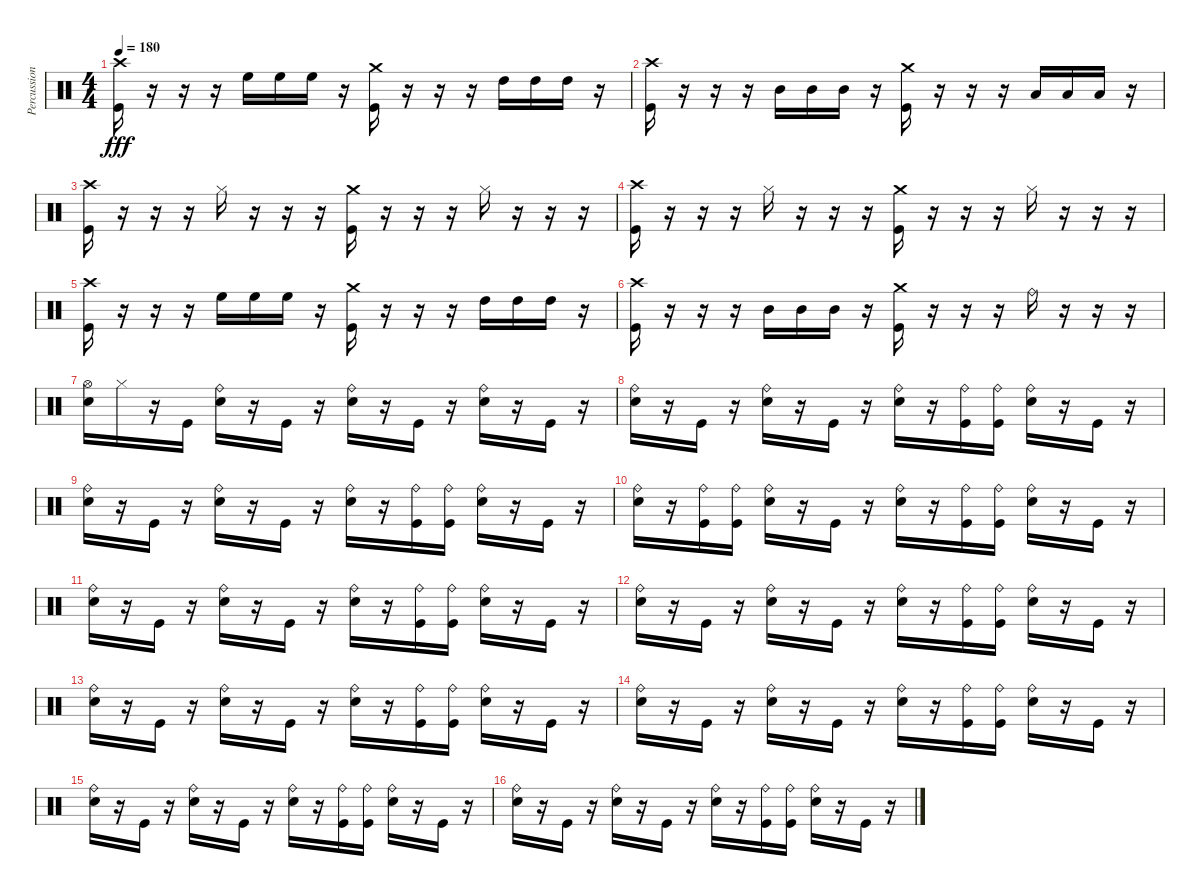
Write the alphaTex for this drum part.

\track ("Percussion" "Percussion") {instrument percussion}
\staff {score}
\articulation defaults
\ts (4 4)
\tempo 180
\clef neutral
\ks c
("Crash high (hit)" "Kick (hit)").16{dy fff} r.16 r.16 r.16 "High Floor Tom (hit)".16 "High Floor Tom (hit)".16 "High Floor Tom (hit)".16 r.16 ("Crash medium (hit)" "Kick (hit)").16 r.16 r.16 r.16 "High Tom (hit)".16 "High Tom (hit)".16 "High Tom (hit)".16 r.16 |
("Crash high (hit)" "Kick (hit)").16 r.16 r.16 r.16 "Mid Tom (hit)".16 "Mid Tom (hit)".16 "Mid Tom (hit)".16 r.16 ("Crash medium (hit)" "Kick (hit)").16 r.16 r.16 r.16 "Low Tom (hit)".16 "Low Tom (hit)".16 "Low Tom (hit)".16 r.16 |
("Crash high (hit)" "Kick (hit)").16 r.16 r.16 r.16 "Hi-Hat (closed)".16 r.16 r.16 r.16 ("Crash medium (hit)" "Kick (hit)").16 r.16 r.16 r.16 "Hi-Hat (closed)".16 r.16 r.16 r.16 |
("Crash high (hit)" "Kick (hit)").16 r.16 r.16 r.16 "Hi-Hat (closed)".16 r.16 r.16 r.16 ("Crash medium (hit)" "Kick (hit)").16 r.16 r.16 r.16 "Hi-Hat (closed)".16 r.16 r.16 r.16 |
("Crash high (hit)" "Kick (hit)").16 r.16 r.16 r.16 "High Floor Tom (hit)".16 "High Floor Tom (hit)".16 "High Floor Tom (hit)".16 r.16 ("Crash medium (hit)" "Kick (hit)").16 r.16 r.16 r.16 "High Tom (hit)".16 "High Tom (hit)".16 "High Tom (hit)".16 r.16 |
("Crash high (hit)" "Kick (hit)").16 r.16 r.16 r.16 "Mid Tom (hit)".16 "Mid Tom (hit)".16 "Mid Tom (hit)".16 r.16 ("Crash medium (hit)" "Kick (hit)").16 r.16 r.16 r.16 "Ride (bell)".16 r.16 r.16 r.16 |
("Hi-Hat (open)" "Electric Snare (hit)").16 "Hi-Hat (closed)".16 r.16 "Kick (hit)".16 ("Ride (bell)" "Electric Snare (hit)").16 r.16 "Kick (hit)".16 r.16 ("Ride (bell)" "Electric Snare (hit)").16 r.16 "Kick (hit)".16 r.16 ("Ride (bell)" "Electric Snare (hit)").16 r.16 "Kick (hit)".16 r.16 |
("Ride (bell)" "Electric Snare (hit)").16 r.16 "Kick (hit)".16 r.16 ("Ride (bell)" "Electric Snare (hit)").16 r.16 "Kick (hit)".16 r.16 ("Ride (bell)" "Electric Snare (hit)").16 r.16 ("Ride (bell)" "Kick (hit)").16 ("Ride (bell)" "Kick (hit)").16 ("Ride (bell)" "Electric Snare (hit)").16 r.16 "Kick (hit)".16 r.16 |
("Ride (bell)" "Electric Snare (hit)").16 r.16 "Kick (hit)".16 r.16 ("Ride (bell)" "Electric Snare (hit)").16 r.16 "Kick (hit)".16 r.16 ("Ride (bell)" "Electric Snare (hit)").16 r.16 ("Ride (bell)" "Kick (hit)").16 ("Ride (bell)" "Kick (hit)").16 ("Ride (bell)" "Electric Snare (hit)").16 r.16 "Kick (hit)".16 r.16 |
("Ride (bell)" "Electric Snare (hit)").16 r.16 ("Ride (bell)" "Kick (hit)").16 ("Ride (bell)" "Kick (hit)").16 ("Ride (bell)" "Electric Snare (hit)").16 r.16 "Kick (hit)".16 r.16 ("Ride (bell)" "Electric Snare (hit)").16 r.16 ("Ride (bell)" "Kick (hit)").16 ("Ride (bell)" "Kick (hit)").16 ("Ride (bell)" "Electric Snare (hit)").16 r.16 "Kick (hit)".16 r.16 |
("Ride (bell)" "Electric Snare (hit)").16 r.16 "Kick (hit)".16 r.16 ("Ride (bell)" "Electric Snare (hit)").16 r.16 "Kick (hit)".16 r.16 ("Ride (bell)" "Electric Snare (hit)").16 r.16 ("Ride (bell)" "Kick (hit)").16 ("Ride (bell)" "Kick (hit)").16 ("Ride (bell)" "Electric Snare (hit)").16 r.16 "Kick (hit)".16 r.16 |
("Ride (bell)" "Electric Snare (hit)").16 r.16 "Kick (hit)".16 r.16 ("Ride (bell)" "Electric Snare (hit)").16 r.16 "Kick (hit)".16 r.16 ("Ride (bell)" "Electric Snare (hit)").16 r.16 ("Ride (bell)" "Kick (hit)").16 ("Ride (bell)" "Kick (hit)").16 ("Ride (bell)" "Electric Snare (hit)").16 r.16 "Kick (hit)".16 r.16 |
("Ride (bell)" "Electric Snare (hit)").16 r.16 "Kick (hit)".16 r.16 ("Ride (bell)" "Electric Snare (hit)").16 r.16 "Kick (hit)".16 r.16 ("Ride (bell)" "Electric Snare (hit)").16 r.16 ("Ride (bell)" "Kick (hit)").16 ("Ride (bell)" "Kick (hit)").16 ("Ride (bell)" "Electric Snare (hit)").16 r.16 "Kick (hit)".16 r.16 |
("Ride (bell)" "Electric Snare (hit)").16 r.16 "Kick (hit)".16 r.16 ("Ride (bell)" "Electric Snare (hit)").16 r.16 "Kick (hit)".16 r.16 ("Ride (bell)" "Electric Snare (hit)").16 r.16 ("Ride (bell)" "Kick (hit)").16 ("Ride (bell)" "Kick (hit)").16 ("Ride (bell)" "Electric Snare (hit)").16 r.16 "Kick (hit)".16 r.16 |
("Ride (bell)" "Electric Snare (hit)").16 r.16 "Kick (hit)".16 r.16 ("Ride (bell)" "Electric Snare (hit)").16 r.16 "Kick (hit)".16 r.16 ("Ride (bell)" "Electric Snare (hit)").16 r.16 ("Ride (bell)" "Kick (hit)").16 ("Ride (bell)" "Kick (hit)").16 ("Ride (bell)" "Electric Snare (hit)").16 r.16 "Kick (hit)".16 r.16 |
("Ride (bell)" "Electric Snare (hit)").16 r.16 "Kick (hit)".16 r.16 ("Ride (bell)" "Electric Snare (hit)").16 r.16 "Kick (hit)".16 r.16 ("Ride (bell)" "Electric Snare (hit)").16 r.16 ("Ride (bell)" "Kick (hit)").16 ("Ride (bell)" "Kick (hit)").16 ("Ride (bell)" "Electric Snare (hit)").16 r.16 "Kick (hit)".16 r.16
